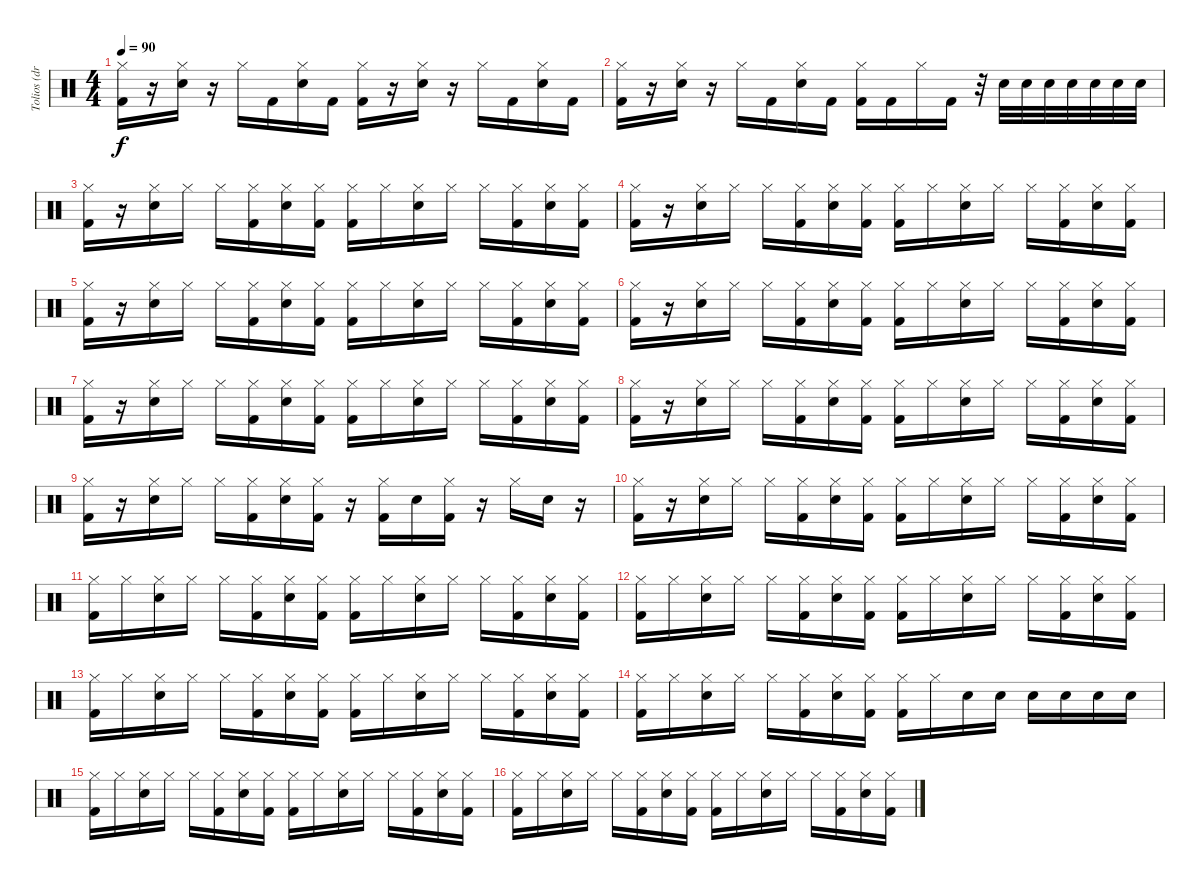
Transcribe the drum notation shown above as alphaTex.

\track ("Tolios (drums)" "Tolios (dr") {instrument percussion}
\staff {score}
\articulation defaults
\ts (4 4)
\tempo 90
\clef neutral
\ks c
("Hi-Hat (closed)" "Kick (hit) 2").16{dy f} r.16 ("Hi-Hat (closed)" "Snare (hit) 2").16 r.16 "Hi-Hat (closed)".16 "Kick (hit) 2".16 ("Hi-Hat (closed)" "Snare (hit) 2").16 "Kick (hit) 2".16 ("Hi-Hat (closed)" "Kick (hit) 2").16 r.16 ("Hi-Hat (closed)" "Snare (hit) 2").16 r.16 "Hi-Hat (closed)".16 "Kick (hit) 2".16 ("Hi-Hat (closed)" "Snare (hit) 2").16 "Kick (hit) 2".16 |
("Hi-Hat (closed)" "Kick (hit) 2").16 r.16 ("Hi-Hat (closed)" "Snare (hit) 2").16 r.16 "Hi-Hat (closed)".16 "Kick (hit) 2".16 ("Hi-Hat (closed)" "Snare (hit) 2").16 "Kick (hit) 2".16 ("Hi-Hat (closed)" "Kick (hit) 2").16 "Kick (hit) 2".16 "Hi-Hat (closed)".16 "Kick (hit) 2".16 r.32 "Snare (hit) 2".32 "Snare (hit) 2".32 "Snare (hit) 2".32 "Snare (hit) 2".32 "Snare (hit) 2".32 "Snare (hit) 2".32 "Snare (hit) 2".32 |
("Hi-Hat (closed)" "Kick (hit) 2").16 r.16 ("Hi-Hat (closed)" "Snare (hit) 2").16 "Hi-Hat (closed)".16 "Hi-Hat (closed)".16 ("Hi-Hat (closed)" "Kick (hit) 2").16 ("Hi-Hat (closed)" "Snare (hit) 2").16 ("Hi-Hat (closed)" "Kick (hit) 2").16 ("Hi-Hat (closed)" "Kick (hit) 2").16 "Hi-Hat (closed)".16 ("Hi-Hat (closed)" "Snare (hit) 2").16 "Hi-Hat (closed)".16 "Hi-Hat (closed)".16 ("Hi-Hat (closed)" "Kick (hit) 2").16 ("Hi-Hat (closed)" "Snare (hit) 2").16 ("Hi-Hat (closed)" "Kick (hit) 2").16 |
("Hi-Hat (closed)" "Kick (hit) 2").16 r.16 ("Hi-Hat (closed)" "Snare (hit) 2").16 "Hi-Hat (closed)".16 "Hi-Hat (closed)".16 ("Hi-Hat (closed)" "Kick (hit) 2").16 ("Hi-Hat (closed)" "Snare (hit) 2").16 ("Hi-Hat (closed)" "Kick (hit) 2").16 ("Hi-Hat (closed)" "Kick (hit) 2").16 "Hi-Hat (closed)".16 ("Hi-Hat (closed)" "Snare (hit) 2").16 "Hi-Hat (closed)".16 "Hi-Hat (closed)".16 ("Hi-Hat (closed)" "Kick (hit) 2").16 ("Hi-Hat (closed)" "Snare (hit) 2").16 ("Hi-Hat (closed)" "Kick (hit) 2").16 |
("Hi-Hat (closed)" "Kick (hit) 2").16 r.16 ("Hi-Hat (closed)" "Snare (hit) 2").16 "Hi-Hat (closed)".16 "Hi-Hat (closed)".16 ("Hi-Hat (closed)" "Kick (hit) 2").16 ("Hi-Hat (closed)" "Snare (hit) 2").16 ("Hi-Hat (closed)" "Kick (hit) 2").16 ("Hi-Hat (closed)" "Kick (hit) 2").16 "Hi-Hat (closed)".16 ("Hi-Hat (closed)" "Snare (hit) 2").16 "Hi-Hat (closed)".16 "Hi-Hat (closed)".16 ("Hi-Hat (closed)" "Kick (hit) 2").16 ("Hi-Hat (closed)" "Snare (hit) 2").16 ("Hi-Hat (closed)" "Kick (hit) 2").16 |
("Hi-Hat (closed)" "Kick (hit) 2").16 r.16 ("Hi-Hat (closed)" "Snare (hit) 2").16 "Hi-Hat (closed)".16 "Hi-Hat (closed)".16 ("Hi-Hat (closed)" "Kick (hit) 2").16 ("Hi-Hat (closed)" "Snare (hit) 2").16 ("Hi-Hat (closed)" "Kick (hit) 2").16 ("Hi-Hat (closed)" "Kick (hit) 2").16 "Hi-Hat (closed)".16 ("Hi-Hat (closed)" "Snare (hit) 2").16 "Hi-Hat (closed)".16 "Hi-Hat (closed)".16 ("Hi-Hat (closed)" "Kick (hit) 2").16 ("Hi-Hat (closed)" "Snare (hit) 2").16 ("Hi-Hat (closed)" "Kick (hit) 2").16 |
("Hi-Hat (closed)" "Kick (hit) 2").16 r.16 ("Hi-Hat (closed)" "Snare (hit) 2").16 "Hi-Hat (closed)".16 "Hi-Hat (closed)".16 ("Hi-Hat (closed)" "Kick (hit) 2").16 ("Hi-Hat (closed)" "Snare (hit) 2").16 ("Hi-Hat (closed)" "Kick (hit) 2").16 ("Hi-Hat (closed)" "Kick (hit) 2").16 "Hi-Hat (closed)".16 ("Hi-Hat (closed)" "Snare (hit) 2").16 "Hi-Hat (closed)".16 "Hi-Hat (closed)".16 ("Hi-Hat (closed)" "Kick (hit) 2").16 ("Hi-Hat (closed)" "Snare (hit) 2").16 ("Hi-Hat (closed)" "Kick (hit) 2").16 |
("Hi-Hat (closed)" "Kick (hit) 2").16 r.16 ("Hi-Hat (closed)" "Snare (hit) 2").16 "Hi-Hat (closed)".16 "Hi-Hat (closed)".16 ("Hi-Hat (closed)" "Kick (hit) 2").16 ("Hi-Hat (closed)" "Snare (hit) 2").16 ("Hi-Hat (closed)" "Kick (hit) 2").16 ("Hi-Hat (closed)" "Kick (hit) 2").16 "Hi-Hat (closed)".16 ("Hi-Hat (closed)" "Snare (hit) 2").16 "Hi-Hat (closed)".16 "Hi-Hat (closed)".16 ("Hi-Hat (closed)" "Kick (hit) 2").16 ("Hi-Hat (closed)" "Snare (hit) 2").16 ("Hi-Hat (closed)" "Kick (hit) 2").16 |
("Hi-Hat (closed)" "Kick (hit) 2").16 r.16 ("Hi-Hat (closed)" "Snare (hit) 2").16 "Hi-Hat (closed)".16 "Hi-Hat (closed)".16 ("Hi-Hat (closed)" "Kick (hit) 2").16 ("Hi-Hat (closed)" "Snare (hit) 2").16 ("Hi-Hat (closed)" "Kick (hit) 2").16 r.16 ("Hi-Hat (closed)" "Kick (hit) 2").16 "Snare (hit) 2".16 ("Hi-Hat (closed)" "Kick (hit) 2").16 r.16 "Hi-Hat (closed)".16 "Snare (hit) 2".16 r.16 |
("Hi-Hat (closed)" "Kick (hit) 2").16 r.16 ("Hi-Hat (closed)" "Snare (hit) 2").16 "Hi-Hat (closed)".16 "Hi-Hat (closed)".16 ("Hi-Hat (closed)" "Kick (hit) 2").16 ("Hi-Hat (closed)" "Snare (hit) 2").16 ("Hi-Hat (closed)" "Kick (hit) 2").16 ("Hi-Hat (closed)" "Kick (hit) 2").16 "Hi-Hat (closed)".16 ("Hi-Hat (closed)" "Snare (hit) 2").16 "Hi-Hat (closed)".16 "Hi-Hat (closed)".16 ("Hi-Hat (closed)" "Kick (hit) 2").16 ("Hi-Hat (closed)" "Snare (hit) 2").16 ("Hi-Hat (closed)" "Kick (hit) 2").16 |
("Hi-Hat (closed)" "Kick (hit) 2").16 "Hi-Hat (closed)".16 ("Hi-Hat (closed)" "Snare (hit) 2").16 "Hi-Hat (closed)".16 "Hi-Hat (closed)".16 ("Hi-Hat (closed)" "Kick (hit) 2").16 ("Hi-Hat (closed)" "Snare (hit) 2").16 ("Hi-Hat (closed)" "Kick (hit) 2").16 ("Hi-Hat (closed)" "Kick (hit) 2").16 "Hi-Hat (closed)".16 ("Hi-Hat (closed)" "Snare (hit) 2").16 "Hi-Hat (closed)".16 "Hi-Hat (closed)".16 ("Hi-Hat (closed)" "Kick (hit) 2").16 ("Hi-Hat (closed)" "Snare (hit) 2").16 ("Hi-Hat (closed)" "Kick (hit) 2").16 |
("Hi-Hat (closed)" "Kick (hit) 2").16 "Hi-Hat (closed)".16 ("Hi-Hat (closed)" "Snare (hit) 2").16 "Hi-Hat (closed)".16 "Hi-Hat (closed)".16 ("Hi-Hat (closed)" "Kick (hit) 2").16 ("Hi-Hat (closed)" "Snare (hit) 2").16 ("Hi-Hat (closed)" "Kick (hit) 2").16 ("Hi-Hat (closed)" "Kick (hit) 2").16 "Hi-Hat (closed)".16 ("Hi-Hat (closed)" "Snare (hit) 2").16 "Hi-Hat (closed)".16 "Hi-Hat (closed)".16 ("Hi-Hat (closed)" "Kick (hit) 2").16 ("Hi-Hat (closed)" "Snare (hit) 2").16 ("Hi-Hat (closed)" "Kick (hit) 2").16 |
("Hi-Hat (closed)" "Kick (hit) 2").16 "Hi-Hat (closed)".16 ("Hi-Hat (closed)" "Snare (hit) 2").16 "Hi-Hat (closed)".16 "Hi-Hat (closed)".16 ("Hi-Hat (closed)" "Kick (hit) 2").16 ("Hi-Hat (closed)" "Snare (hit) 2").16 ("Hi-Hat (closed)" "Kick (hit) 2").16 ("Hi-Hat (closed)" "Kick (hit) 2").16 "Hi-Hat (closed)".16 ("Hi-Hat (closed)" "Snare (hit) 2").16 "Hi-Hat (closed)".16 "Hi-Hat (closed)".16 ("Hi-Hat (closed)" "Kick (hit) 2").16 ("Hi-Hat (closed)" "Snare (hit) 2").16 ("Hi-Hat (closed)" "Kick (hit) 2").16 |
("Hi-Hat (closed)" "Kick (hit) 2").16 "Hi-Hat (closed)".16 ("Hi-Hat (closed)" "Snare (hit) 2").16 "Hi-Hat (closed)".16 "Hi-Hat (closed)".16 ("Hi-Hat (closed)" "Kick (hit) 2").16 ("Hi-Hat (closed)" "Snare (hit) 2").16 ("Hi-Hat (closed)" "Kick (hit) 2").16 ("Hi-Hat (closed)" "Kick (hit) 2").16 "Hi-Hat (closed)".16 "Snare (hit) 2".16 "Snare (hit) 2".16 "Snare (hit) 2".16 "Snare (hit) 2".16 "Snare (hit) 2".16 "Snare (hit) 2".16 |
("Hi-Hat (closed)" "Kick (hit) 2").16 "Hi-Hat (closed)".16 ("Hi-Hat (closed)" "Snare (hit) 2").16 "Hi-Hat (closed)".16 "Hi-Hat (closed)".16 ("Hi-Hat (closed)" "Kick (hit) 2").16 ("Hi-Hat (closed)" "Snare (hit) 2").16 ("Hi-Hat (closed)" "Kick (hit) 2").16 ("Hi-Hat (closed)" "Kick (hit) 2").16 "Hi-Hat (closed)".16 ("Hi-Hat (closed)" "Snare (hit) 2").16 "Hi-Hat (closed)".16 "Hi-Hat (closed)".16 ("Hi-Hat (closed)" "Kick (hit) 2").16 ("Hi-Hat (closed)" "Snare (hit) 2").16 ("Hi-Hat (closed)" "Kick (hit) 2").16 |
("Hi-Hat (closed)" "Kick (hit) 2").16 "Hi-Hat (closed)".16 ("Hi-Hat (closed)" "Snare (hit) 2").16 "Hi-Hat (closed)".16 "Hi-Hat (closed)".16 ("Hi-Hat (closed)" "Kick (hit) 2").16 ("Hi-Hat (closed)" "Snare (hit) 2").16 ("Hi-Hat (closed)" "Kick (hit) 2").16 ("Hi-Hat (closed)" "Kick (hit) 2").16 "Hi-Hat (closed)".16 ("Hi-Hat (closed)" "Snare (hit) 2").16 "Hi-Hat (closed)".16 "Hi-Hat (closed)".16 ("Hi-Hat (closed)" "Kick (hit) 2").16 ("Hi-Hat (closed)" "Snare (hit) 2").16 ("Hi-Hat (closed)" "Kick (hit) 2").16
